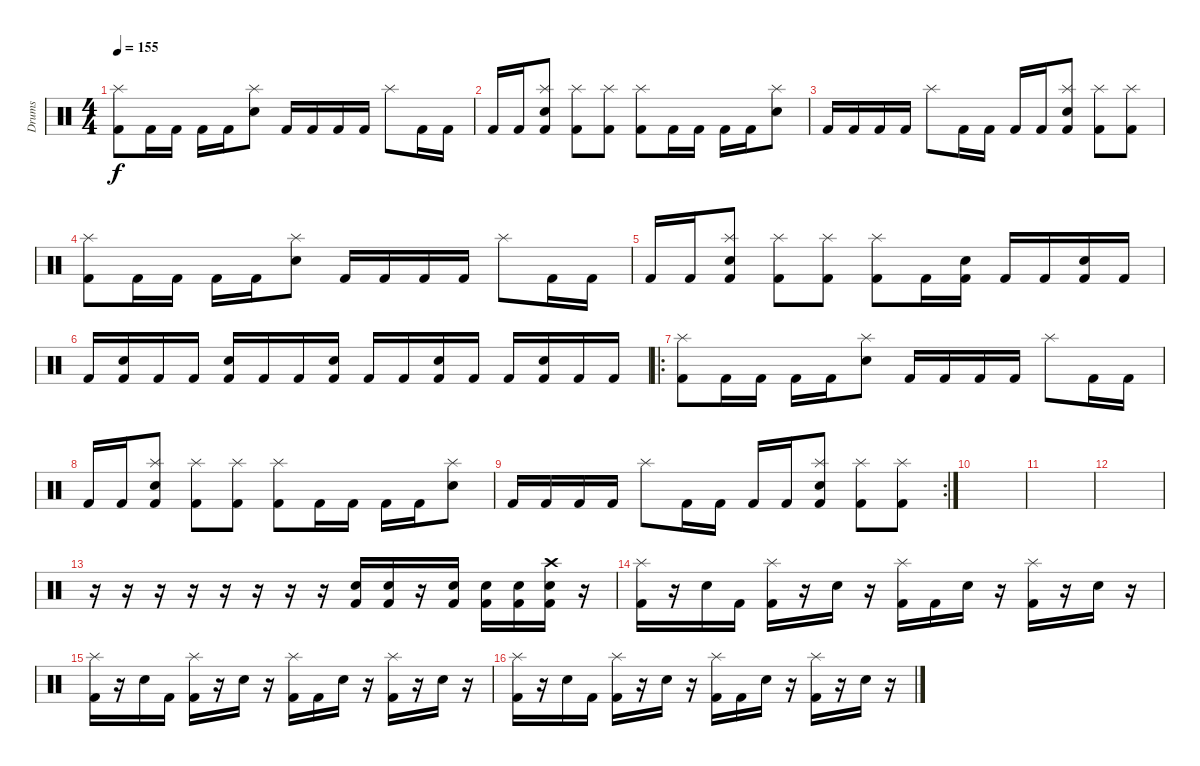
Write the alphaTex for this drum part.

\track ("Drums" "Drums") {instrument percussion}
\staff {score}
\articulation defaults
\ts (4 4)
\tempo 155
\clef neutral
\ks c
("Kick (hit) 2" "Splash (hit)").8{dy f} "Kick (hit) 2".16 "Kick (hit) 2".16 "Kick (hit) 2".16 "Kick (hit) 2".16 ("Snare (hit) 2" "Splash (hit)").8 "Kick (hit) 2".16 "Kick (hit) 2".16 "Kick (hit) 2".16 "Kick (hit) 2".16 "Splash (hit)".8 "Kick (hit) 2".16 "Kick (hit) 2".16 |
"Kick (hit) 2".16 "Kick (hit) 2".16 ("Snare (hit) 2" "Splash (hit)" "Kick (hit) 2").8 ("Kick (hit) 2" "Splash (hit)").8 ("Kick (hit) 2" "Splash (hit)").8 ("Kick (hit) 2" "Splash (hit)").8 "Kick (hit) 2".16 "Kick (hit) 2".16 "Kick (hit) 2".16 "Kick (hit) 2".16 ("Snare (hit) 2" "Splash (hit)").8 |
"Kick (hit) 2".16 "Kick (hit) 2".16 "Kick (hit) 2".16 "Kick (hit) 2".16 "Splash (hit)".8 "Kick (hit) 2".16 "Kick (hit) 2".16 "Kick (hit) 2".16 "Kick (hit) 2".16 ("Snare (hit) 2" "Splash (hit)" "Kick (hit) 2").8 ("Kick (hit) 2" "Splash (hit)").8 ("Kick (hit) 2" "Splash (hit)").8 |
("Kick (hit) 2" "Splash (hit)").8 "Kick (hit) 2".16 "Kick (hit) 2".16 "Kick (hit) 2".16 "Kick (hit) 2".16 ("Snare (hit) 2" "Splash (hit)").8 "Kick (hit) 2".16 "Kick (hit) 2".16 "Kick (hit) 2".16 "Kick (hit) 2".16 "Splash (hit)".8 "Kick (hit) 2".16 "Kick (hit) 2".16 |
"Kick (hit) 2".16 "Kick (hit) 2".16 ("Snare (hit) 2" "Splash (hit)" "Kick (hit) 2").8 ("Kick (hit) 2" "Splash (hit)").8 ("Kick (hit) 2" "Splash (hit)").8 ("Kick (hit) 2" "Splash (hit)").8 "Kick (hit) 2".16 ("Kick (hit) 2" "Snare (hit) 2").16 "Kick (hit) 2".16 "Kick (hit) 2".16 ("Kick (hit) 2" "Snare (hit) 2").16 "Kick (hit) 2".16 |
"Kick (hit) 2".16 ("Kick (hit) 2" "Snare (hit) 2").16 "Kick (hit) 2".16 "Kick (hit) 2".16 ("Kick (hit) 2" "Snare (hit) 2").16 "Kick (hit) 2".16 "Kick (hit) 2".16 ("Kick (hit) 2" "Snare (hit) 2").16 "Kick (hit) 2".16 "Kick (hit) 2".16 ("Kick (hit) 2" "Snare (hit) 2").16 "Kick (hit) 2".16 "Kick (hit) 2".16 ("Kick (hit) 2" "Snare (hit) 2").16 "Kick (hit) 2".16 "Kick (hit) 2".16 |
\ro
("Kick (hit) 2" "Splash (hit)").8 "Kick (hit) 2".16 "Kick (hit) 2".16 "Kick (hit) 2".16 "Kick (hit) 2".16 ("Snare (hit) 2" "Splash (hit)").8 "Kick (hit) 2".16 "Kick (hit) 2".16 "Kick (hit) 2".16 "Kick (hit) 2".16 "Splash (hit)".8 "Kick (hit) 2".16 "Kick (hit) 2".16 |
"Kick (hit) 2".16 "Kick (hit) 2".16 ("Snare (hit) 2" "Splash (hit)" "Kick (hit) 2").8 ("Kick (hit) 2" "Splash (hit)").8 ("Kick (hit) 2" "Splash (hit)").8 ("Kick (hit) 2" "Splash (hit)").8 "Kick (hit) 2".16 "Kick (hit) 2".16 "Kick (hit) 2".16 "Kick (hit) 2".16 ("Snare (hit) 2" "Splash (hit)").8 |
\rc 2 "Kick (hit) 2".16 "Kick (hit) 2".16 "Kick (hit) 2".16 "Kick (hit) 2".16 "Splash (hit)".8 "Kick (hit) 2".16 "Kick (hit) 2".16 "Kick (hit) 2".16 "Kick (hit) 2".16
("Snare (hit) 2" "Splash (hit)" "Kick (hit) 2").8 ("Kick (hit) 2" "Splash (hit)").8 ("Kick (hit) 2" "Splash (hit)").8 |
|
|
|
r.16 r.16 r.16 r.16 r.16 r.16 r.16 r.16 ("Snare (hit) 2" "Kick (hit) 2").16 ("Snare (hit) 2" "Kick (hit) 2").16 r.16 ("Snare (hit) 2" "Kick (hit) 2").16 ("Snare (hit) 2" "Kick (hit) 2").16 ("Snare (hit) 2" "Kick (hit) 2").16 ("Snare (hit) 2" "Kick (hit) 2" "Crash high (hit)").16 r.16 |
("Kick (hit) 2" "Splash (hit)").16 r.16 "Snare (hit) 2".16 "Kick (hit) 2".16 ("Kick (hit) 2" "Splash (hit)").16 r.16 "Snare (hit) 2".16 r.16 ("Kick (hit) 2" "Splash (hit)").16 "Kick (hit) 2".16 "Snare (hit) 2".16 r.16 ("Kick (hit) 2" "Splash (hit)").16 r.16 "Snare (hit) 2".16 r.16 |
("Kick (hit) 2" "Splash (hit)").16 r.16 "Snare (hit) 2".16 "Kick (hit) 2".16 ("Kick (hit) 2" "Splash (hit)").16 r.16 "Snare (hit) 2".16 r.16 ("Kick (hit) 2" "Splash (hit)").16 "Kick (hit) 2".16 "Snare (hit) 2".16 r.16 ("Kick (hit) 2" "Splash (hit)").16 r.16 "Snare (hit) 2".16 r.16 |
("Kick (hit) 2" "Splash (hit)").16 r.16 "Snare (hit) 2".16 "Kick (hit) 2".16 ("Kick (hit) 2" "Splash (hit)").16 r.16 "Snare (hit) 2".16 r.16 ("Kick (hit) 2" "Splash (hit)").16 "Kick (hit) 2".16 "Snare (hit) 2".16 r.16 ("Kick (hit) 2" "Splash (hit)").16 r.16 "Snare (hit) 2".16 r.16
